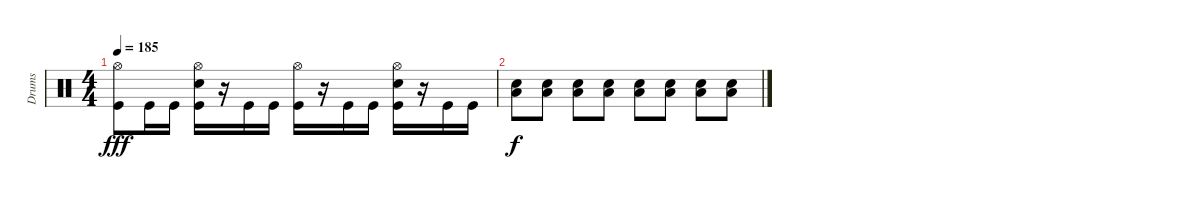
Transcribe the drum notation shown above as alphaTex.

\track ("Drums" "Drums") {instrument percussion}
\staff {score}
\articulation defaults
\ts (4 4)
\tempo 185
\clef neutral
\ks c
("Hi-Hat (open)" "Kick (hit)").8{dy fff} "Kick (hit)".16 "Kick (hit)".16 ("Hi-Hat (open)" "Snare (hit) 2" "Kick (hit)").16 r.16 "Kick (hit)".16 "Kick (hit)".16 ("Hi-Hat (open)" "Kick (hit)").16 r.16 "Kick (hit)".16 "Kick (hit)".16 ("Hi-Hat (open)" "Snare (hit) 2" "Kick (hit)").16 r.16 "Kick (hit)".16 "Kick (hit)".16 |
("Low Tom (hit)" "Snare (hit) 2").8{dy f} ("Low Tom (hit)" "Snare (hit) 2").8 ("Low Tom (hit)" "Snare (hit) 2").8 ("Low Tom (hit)" "Snare (hit) 2").8 ("Low Tom (hit)" "Snare (hit) 2").8 ("Low Tom (hit)" "Snare (hit) 2").8 ("Low Tom (hit)" "Snare (hit) 2").8 ("Low Tom (hit)" "Snare (hit) 2").8
